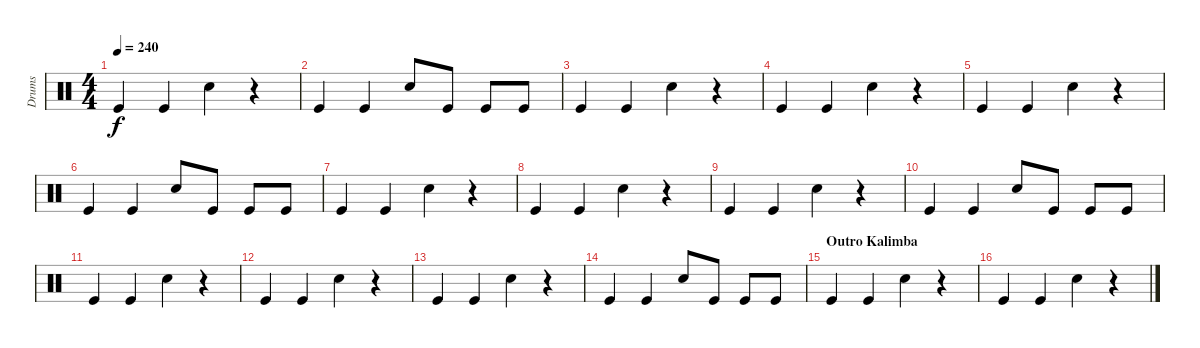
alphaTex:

\track ("Drums" "Drums") {instrument percussion}
\staff {score}
\articulation defaults
\ts (4 4)
\tempo 240
\clef neutral
\ks c "Kick (hit)".4{dy f} "Kick (hit)".4 "Snare (hit) 2".4
r.4 |
"Kick (hit)".4 "Kick (hit)".4 "Snare (hit) 2".8 "Kick (hit)".8 "Kick (hit)".8 "Kick (hit)".8 |
"Kick (hit)".4 "Kick (hit)".4 "Snare (hit) 2".4 r.4 |
"Kick (hit)".4 "Kick (hit)".4 "Snare (hit) 2".4 r.4 |
"Kick (hit)".4 "Kick (hit)".4 "Snare (hit) 2".4 r.4 |
"Kick (hit)".4 "Kick (hit)".4 "Snare (hit) 2".8 "Kick (hit)".8 "Kick (hit)".8 "Kick (hit)".8 |
"Kick (hit)".4 "Kick (hit)".4 "Snare (hit) 2".4 r.4 |
"Kick (hit)".4 "Kick (hit)".4 "Snare (hit) 2".4 r.4 |
"Kick (hit)".4 "Kick (hit)".4 "Snare (hit) 2".4 r.4 |
"Kick (hit)".4 "Kick (hit)".4 "Snare (hit) 2".8 "Kick (hit)".8 "Kick (hit)".8 "Kick (hit)".8 |
"Kick (hit)".4 "Kick (hit)".4 "Snare (hit) 2".4 r.4 |
"Kick (hit)".4 "Kick (hit)".4 "Snare (hit) 2".4 r.4 |
"Kick (hit)".4 "Kick (hit)".4 "Snare (hit) 2".4 r.4 |
"Kick (hit)".4 "Kick (hit)".4 "Snare (hit) 2".8 "Kick (hit)".8 "Kick (hit)".8 "Kick (hit)".8 |
\section ("" "Outro Kalimba")
"Kick (hit)".4 "Kick (hit)".4 "Snare (hit) 2".4 r.4 |
"Kick (hit)".4 "Kick (hit)".4 "Snare (hit) 2".4 r.4
